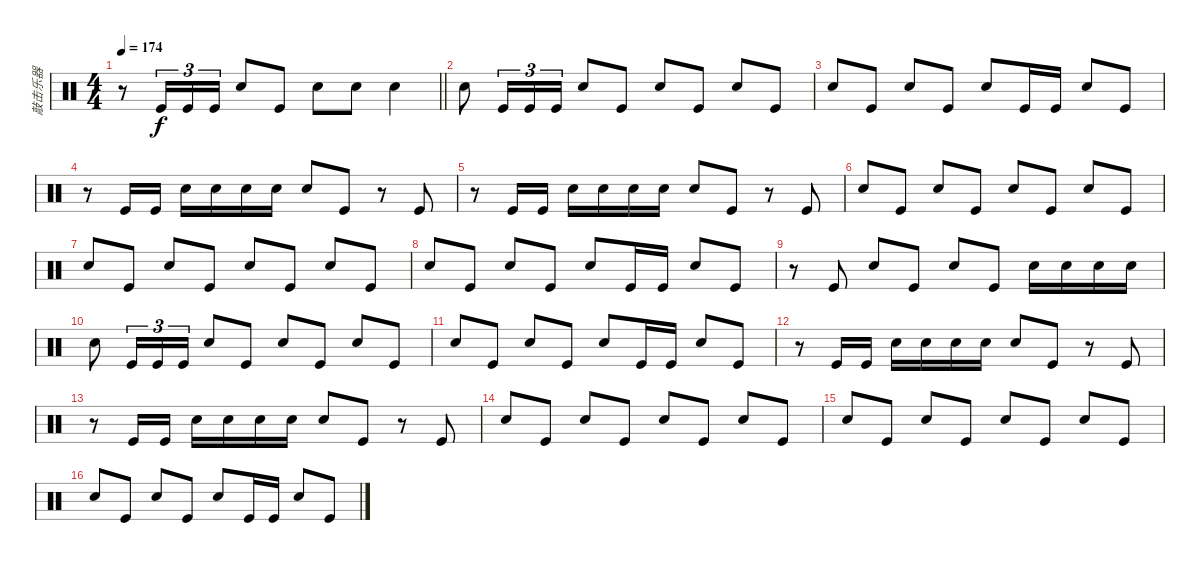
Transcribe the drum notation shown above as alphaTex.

\track ("敲击乐器" "敲击乐器") {instrument percussion}
\staff {score}
\articulation defaults
\ts (4 4)
\tempo 174
\clef neutral
\barLineRight lightlight
\ks c
r.8{dy f} "Kick (hit)".16{tu (3 2)} "Kick (hit)".16{tu (3 2)} "Kick (hit)".16{tu (3 2)} "Snare (hit) 2".8 "Kick (hit)".8 "Snare (hit) 2".8 "Snare (hit) 2".8 "Snare (hit) 2".4 |
"Snare (hit) 2".8 "Kick (hit)".16{tu (3 2)} "Kick (hit)".16{tu (3 2)} "Kick (hit)".16{tu (3 2)} "Snare (hit) 2".8 "Kick (hit)".8 "Snare (hit) 2".8 "Kick (hit)".8 "Snare (hit) 2".8 "Kick (hit)".8 |
"Snare (hit) 2".8 "Kick (hit)".8 "Snare (hit) 2".8 "Kick (hit)".8 "Snare (hit) 2".8 "Kick (hit)".16 "Kick (hit)".16 "Snare (hit) 2".8 "Kick (hit)".8 |
r.8 "Kick (hit)".16 "Kick (hit)".16 "Snare (hit) 2".16 "Snare (hit) 2".16 "Snare (hit) 2".16 "Snare (hit) 2".16 "Snare (hit) 2".8 "Kick (hit)".8 r.8 "Kick (hit)".8 |
r.8 "Kick (hit)".16 "Kick (hit)".16 "Snare (hit) 2".16 "Snare (hit) 2".16 "Snare (hit) 2".16 "Snare (hit) 2".16 "Snare (hit) 2".8 "Kick (hit)".8 r.8 "Kick (hit)".8 |
"Snare (hit) 2".8 "Kick (hit)".8 "Snare (hit) 2".8 "Kick (hit)".8 "Snare (hit) 2".8 "Kick (hit)".8 "Snare (hit) 2".8 "Kick (hit)".8 |
"Snare (hit) 2".8 "Kick (hit)".8 "Snare (hit) 2".8 "Kick (hit)".8 "Snare (hit) 2".8 "Kick (hit)".8 "Snare (hit) 2".8 "Kick (hit)".8 |
"Snare (hit) 2".8 "Kick (hit)".8 "Snare (hit) 2".8 "Kick (hit)".8 "Snare (hit) 2".8 "Kick (hit)".16 "Kick (hit)".16 "Snare (hit) 2".8 "Kick (hit)".8 |
r.8 "Kick (hit)".8 "Snare (hit) 2".8 "Kick (hit)".8 "Snare (hit) 2".8 "Kick (hit)".8 "Snare (hit) 2".16 "Snare (hit) 2".16 "Snare (hit) 2".16 "Snare (hit) 2".16 |
"Snare (hit) 2".8 "Kick (hit)".16{tu (3 2)} "Kick (hit)".16{tu (3 2)} "Kick (hit)".16{tu (3 2)} "Snare (hit) 2".8 "Kick (hit)".8 "Snare (hit) 2".8 "Kick (hit)".8 "Snare (hit) 2".8 "Kick (hit)".8 |
"Snare (hit) 2".8 "Kick (hit)".8 "Snare (hit) 2".8 "Kick (hit)".8 "Snare (hit) 2".8 "Kick (hit)".16 "Kick (hit)".16 "Snare (hit) 2".8 "Kick (hit)".8 |
r.8 "Kick (hit)".16 "Kick (hit)".16 "Snare (hit) 2".16 "Snare (hit) 2".16 "Snare (hit) 2".16 "Snare (hit) 2".16 "Snare (hit) 2".8 "Kick (hit)".8 r.8 "Kick (hit)".8 |
r.8 "Kick (hit)".16 "Kick (hit)".16 "Snare (hit) 2".16 "Snare (hit) 2".16 "Snare (hit) 2".16 "Snare (hit) 2".16 "Snare (hit) 2".8 "Kick (hit)".8 r.8 "Kick (hit)".8 |
"Snare (hit) 2".8 "Kick (hit)".8 "Snare (hit) 2".8 "Kick (hit)".8 "Snare (hit) 2".8 "Kick (hit)".8 "Snare (hit) 2".8 "Kick (hit)".8 |
"Snare (hit) 2".8 "Kick (hit)".8 "Snare (hit) 2".8 "Kick (hit)".8 "Snare (hit) 2".8 "Kick (hit)".8 "Snare (hit) 2".8 "Kick (hit)".8 |
"Snare (hit) 2".8 "Kick (hit)".8 "Snare (hit) 2".8 "Kick (hit)".8 "Snare (hit) 2".8 "Kick (hit)".16 "Kick (hit)".16 "Snare (hit) 2".8 "Kick (hit)".8
